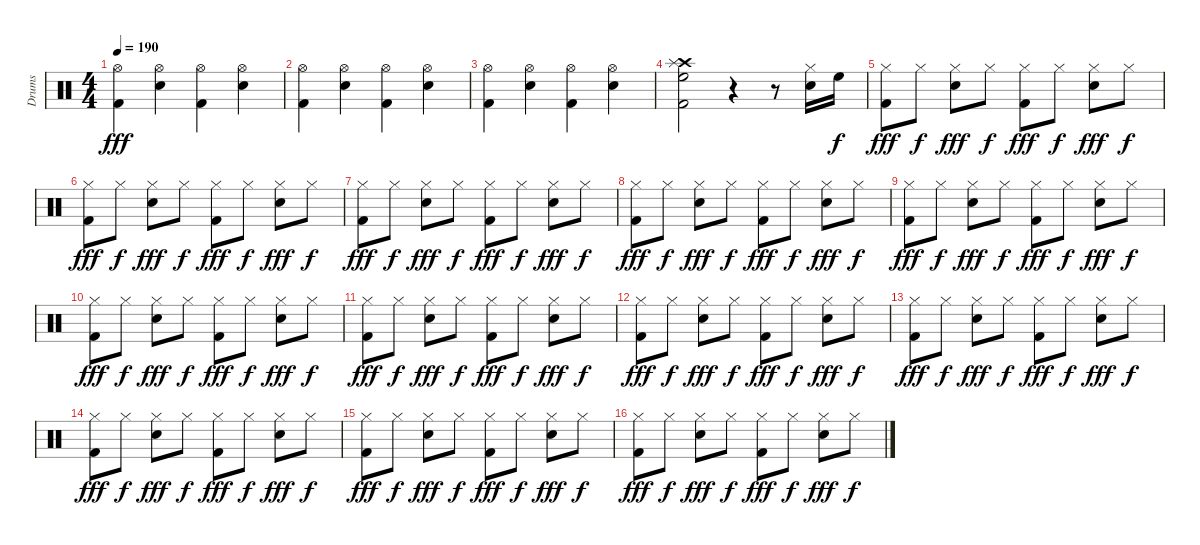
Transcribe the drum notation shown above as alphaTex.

\track ("Drums" "Drums") {instrument percussion}
\staff {score}
\articulation defaults
\ts (4 4)
\tempo 190
\clef neutral
\ks c
("Kick (hit) 2" "Hi-Hat (open)").4{dy fff} ("Snare (hit) 2" "Hi-Hat (open)").4 ("Kick (hit) 2" "Hi-Hat (open)").4 ("Snare (hit) 2" "Hi-Hat (open)").4 |
("Kick (hit) 2" "Hi-Hat (open)").4 ("Snare (hit) 2" "Hi-Hat (open)").4 ("Kick (hit) 2" "Hi-Hat (open)").4 ("Snare (hit) 2" "Hi-Hat (open)").4 |
("Kick (hit) 2" "Hi-Hat (open)").4 ("Snare (hit) 2" "Hi-Hat (open)").4 ("Kick (hit) 2" "Hi-Hat (open)").4 ("Snare (hit) 2" "Hi-Hat (open)").4 |
("Kick (hit) 2" "Crash high (hit)" "Splash (hit)" "High Floor Tom (hit)").2 r.4 r.8 ("Snare (hit) 2" "Hi-Hat (closed)").16 "High Floor Tom (hit)".16{dy f} |
("Kick (hit) 2" "Hi-Hat (closed)").8{dy fff} "Hi-Hat (closed)".8{dy f} ("Snare (hit) 2" "Hi-Hat (closed)").8{dy fff} "Hi-Hat (closed)".8{dy f} ("Kick (hit) 2" "Hi-Hat (closed)").8{dy fff} "Hi-Hat (closed)".8{dy f} ("Snare (hit) 2" "Hi-Hat (closed)").8{dy fff} "Hi-Hat (closed)".8{dy f} |
("Kick (hit) 2" "Hi-Hat (closed)").8{dy fff} "Hi-Hat (closed)".8{dy f} ("Snare (hit) 2" "Hi-Hat (closed)").8{dy fff} "Hi-Hat (closed)".8{dy f} ("Kick (hit) 2" "Hi-Hat (closed)").8{dy fff} "Hi-Hat (closed)".8{dy f} ("Snare (hit) 2" "Hi-Hat (closed)").8{dy fff} "Hi-Hat (closed)".8{dy f} |
("Kick (hit) 2" "Hi-Hat (closed)").8{dy fff} "Hi-Hat (closed)".8{dy f} ("Snare (hit) 2" "Hi-Hat (closed)").8{dy fff} "Hi-Hat (closed)".8{dy f} ("Kick (hit) 2" "Hi-Hat (closed)").8{dy fff} "Hi-Hat (closed)".8{dy f} ("Snare (hit) 2" "Hi-Hat (closed)").8{dy fff} "Hi-Hat (closed)".8{dy f} |
("Kick (hit) 2" "Hi-Hat (closed)").8{dy fff} "Hi-Hat (closed)".8{dy f} ("Snare (hit) 2" "Hi-Hat (closed)").8{dy fff} "Hi-Hat (closed)".8{dy f} ("Kick (hit) 2" "Hi-Hat (closed)").8{dy fff} "Hi-Hat (closed)".8{dy f} ("Snare (hit) 2" "Hi-Hat (closed)").8{dy fff} "Hi-Hat (closed)".8{dy f} |
("Kick (hit) 2" "Hi-Hat (closed)").8{dy fff} "Hi-Hat (closed)".8{dy f} ("Snare (hit) 2" "Hi-Hat (closed)").8{dy fff} "Hi-Hat (closed)".8{dy f} ("Kick (hit) 2" "Hi-Hat (closed)").8{dy fff} "Hi-Hat (closed)".8{dy f} ("Snare (hit) 2" "Hi-Hat (closed)").8{dy fff} "Hi-Hat (closed)".8{dy f} |
("Kick (hit) 2" "Hi-Hat (closed)").8{dy fff} "Hi-Hat (closed)".8{dy f} ("Snare (hit) 2" "Hi-Hat (closed)").8{dy fff} "Hi-Hat (closed)".8{dy f} ("Kick (hit) 2" "Hi-Hat (closed)").8{dy fff} "Hi-Hat (closed)".8{dy f} ("Snare (hit) 2" "Hi-Hat (closed)").8{dy fff} "Hi-Hat (closed)".8{dy f} |
("Kick (hit) 2" "Hi-Hat (closed)").8{dy fff} "Hi-Hat (closed)".8{dy f} ("Snare (hit) 2" "Hi-Hat (closed)").8{dy fff} "Hi-Hat (closed)".8{dy f} ("Kick (hit) 2" "Hi-Hat (closed)").8{dy fff} "Hi-Hat (closed)".8{dy f} ("Snare (hit) 2" "Hi-Hat (closed)").8{dy fff} "Hi-Hat (closed)".8{dy f} |
("Kick (hit) 2" "Hi-Hat (closed)").8{dy fff} "Hi-Hat (closed)".8{dy f} ("Snare (hit) 2" "Hi-Hat (closed)").8{dy fff} "Hi-Hat (closed)".8{dy f} ("Kick (hit) 2" "Hi-Hat (closed)").8{dy fff} "Hi-Hat (closed)".8{dy f} ("Snare (hit) 2" "Hi-Hat (closed)").8{dy fff} "Hi-Hat (closed)".8{dy f} |
("Kick (hit) 2" "Hi-Hat (closed)").8{dy fff} "Hi-Hat (closed)".8{dy f} ("Snare (hit) 2" "Hi-Hat (closed)").8{dy fff} "Hi-Hat (closed)".8{dy f} ("Kick (hit) 2" "Hi-Hat (closed)").8{dy fff} "Hi-Hat (closed)".8{dy f} ("Snare (hit) 2" "Hi-Hat (closed)").8{dy fff} "Hi-Hat (closed)".8{dy f} |
("Kick (hit) 2" "Hi-Hat (closed)").8{dy fff} "Hi-Hat (closed)".8{dy f} ("Snare (hit) 2" "Hi-Hat (closed)").8{dy fff} "Hi-Hat (closed)".8{dy f} ("Kick (hit) 2" "Hi-Hat (closed)").8{dy fff} "Hi-Hat (closed)".8{dy f} ("Snare (hit) 2" "Hi-Hat (closed)").8{dy fff} "Hi-Hat (closed)".8{dy f} |
("Kick (hit) 2" "Hi-Hat (closed)").8{dy fff} "Hi-Hat (closed)".8{dy f} ("Snare (hit) 2" "Hi-Hat (closed)").8{dy fff} "Hi-Hat (closed)".8{dy f} ("Kick (hit) 2" "Hi-Hat (closed)").8{dy fff} "Hi-Hat (closed)".8{dy f} ("Snare (hit) 2" "Hi-Hat (closed)").8{dy fff} "Hi-Hat (closed)".8{dy f} |
("Kick (hit) 2" "Hi-Hat (closed)").8{dy fff} "Hi-Hat (closed)".8{dy f} ("Snare (hit) 2" "Hi-Hat (closed)").8{dy fff} "Hi-Hat (closed)".8{dy f} ("Kick (hit) 2" "Hi-Hat (closed)").8{dy fff} "Hi-Hat (closed)".8{dy f} ("Snare (hit) 2" "Hi-Hat (closed)").8{dy fff} "Hi-Hat (closed)".8{dy f}
